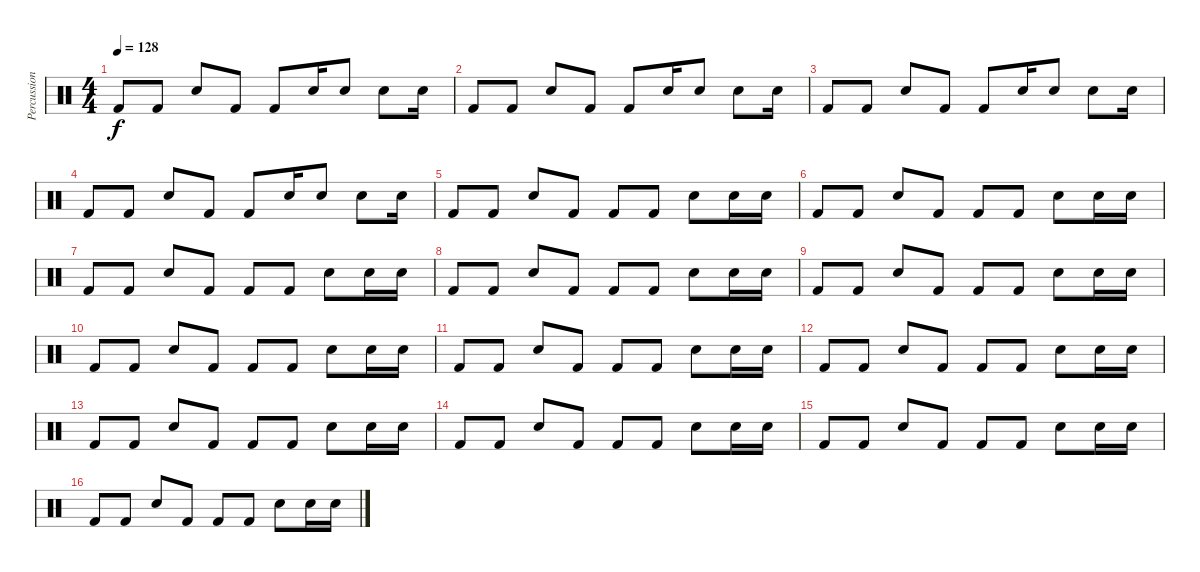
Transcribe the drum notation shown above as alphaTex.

\track ("Percussion" "Percussion") {instrument percussion}
\staff {score}
\articulation defaults
\ts (4 4)
\tempo 128
\clef neutral
\ks c "Kick (hit) 2".8{dy f} "Kick (hit) 2".8 "Snare (hit) 2".8 "Kick (hit) 2".8 "Kick (hit) 2".8 "Snare (hit) 2".16 "Snare (hit) 2".8 "Snare (hit) 2".8 "Snare (hit) 2".16
|
"Kick (hit) 2".8 "Kick (hit) 2".8 "Snare (hit) 2".8 "Kick (hit) 2".8 "Kick (hit) 2".8 "Snare (hit) 2".16 "Snare (hit) 2".8 "Snare (hit) 2".8 "Snare (hit) 2".16 |
"Kick (hit) 2".8 "Kick (hit) 2".8 "Snare (hit) 2".8 "Kick (hit) 2".8 "Kick (hit) 2".8 "Snare (hit) 2".16 "Snare (hit) 2".8 "Snare (hit) 2".8 "Snare (hit) 2".16 |
"Kick (hit) 2".8 "Kick (hit) 2".8 "Snare (hit) 2".8 "Kick (hit) 2".8 "Kick (hit) 2".8 "Snare (hit) 2".16 "Snare (hit) 2".8 "Snare (hit) 2".8 "Snare (hit) 2".16 |
"Kick (hit) 2".8 "Kick (hit) 2".8 "Snare (hit) 2".8 "Kick (hit) 2".8 "Kick (hit) 2".8 "Kick (hit) 2".8 "Snare (hit) 2".8 "Snare (hit) 2".16 "Snare (hit) 2".16 |
"Kick (hit) 2".8 "Kick (hit) 2".8 "Snare (hit) 2".8 "Kick (hit) 2".8 "Kick (hit) 2".8 "Kick (hit) 2".8 "Snare (hit) 2".8 "Snare (hit) 2".16 "Snare (hit) 2".16 |
"Kick (hit) 2".8 "Kick (hit) 2".8 "Snare (hit) 2".8 "Kick (hit) 2".8 "Kick (hit) 2".8 "Kick (hit) 2".8 "Snare (hit) 2".8 "Snare (hit) 2".16 "Snare (hit) 2".16 |
"Kick (hit) 2".8 "Kick (hit) 2".8 "Snare (hit) 2".8 "Kick (hit) 2".8 "Kick (hit) 2".8 "Kick (hit) 2".8 "Snare (hit) 2".8 "Snare (hit) 2".16 "Snare (hit) 2".16 |
"Kick (hit) 2".8 "Kick (hit) 2".8 "Snare (hit) 2".8 "Kick (hit) 2".8 "Kick (hit) 2".8 "Kick (hit) 2".8 "Snare (hit) 2".8 "Snare (hit) 2".16 "Snare (hit) 2".16 |
"Kick (hit) 2".8 "Kick (hit) 2".8 "Snare (hit) 2".8 "Kick (hit) 2".8 "Kick (hit) 2".8 "Kick (hit) 2".8 "Snare (hit) 2".8 "Snare (hit) 2".16 "Snare (hit) 2".16 |
"Kick (hit) 2".8 "Kick (hit) 2".8 "Snare (hit) 2".8 "Kick (hit) 2".8 "Kick (hit) 2".8 "Kick (hit) 2".8 "Snare (hit) 2".8 "Snare (hit) 2".16 "Snare (hit) 2".16 |
"Kick (hit) 2".8 "Kick (hit) 2".8 "Snare (hit) 2".8 "Kick (hit) 2".8 "Kick (hit) 2".8 "Kick (hit) 2".8 "Snare (hit) 2".8 "Snare (hit) 2".16 "Snare (hit) 2".16 |
"Kick (hit) 2".8 "Kick (hit) 2".8 "Snare (hit) 2".8 "Kick (hit) 2".8 "Kick (hit) 2".8 "Kick (hit) 2".8 "Snare (hit) 2".8 "Snare (hit) 2".16 "Snare (hit) 2".16 |
"Kick (hit) 2".8 "Kick (hit) 2".8 "Snare (hit) 2".8 "Kick (hit) 2".8 "Kick (hit) 2".8 "Kick (hit) 2".8 "Snare (hit) 2".8 "Snare (hit) 2".16 "Snare (hit) 2".16 |
"Kick (hit) 2".8 "Kick (hit) 2".8 "Snare (hit) 2".8 "Kick (hit) 2".8 "Kick (hit) 2".8 "Kick (hit) 2".8 "Snare (hit) 2".8 "Snare (hit) 2".16 "Snare (hit) 2".16 |
"Kick (hit) 2".8 "Kick (hit) 2".8 "Snare (hit) 2".8 "Kick (hit) 2".8 "Kick (hit) 2".8 "Kick (hit) 2".8 "Snare (hit) 2".8 "Snare (hit) 2".16 "Snare (hit) 2".16
